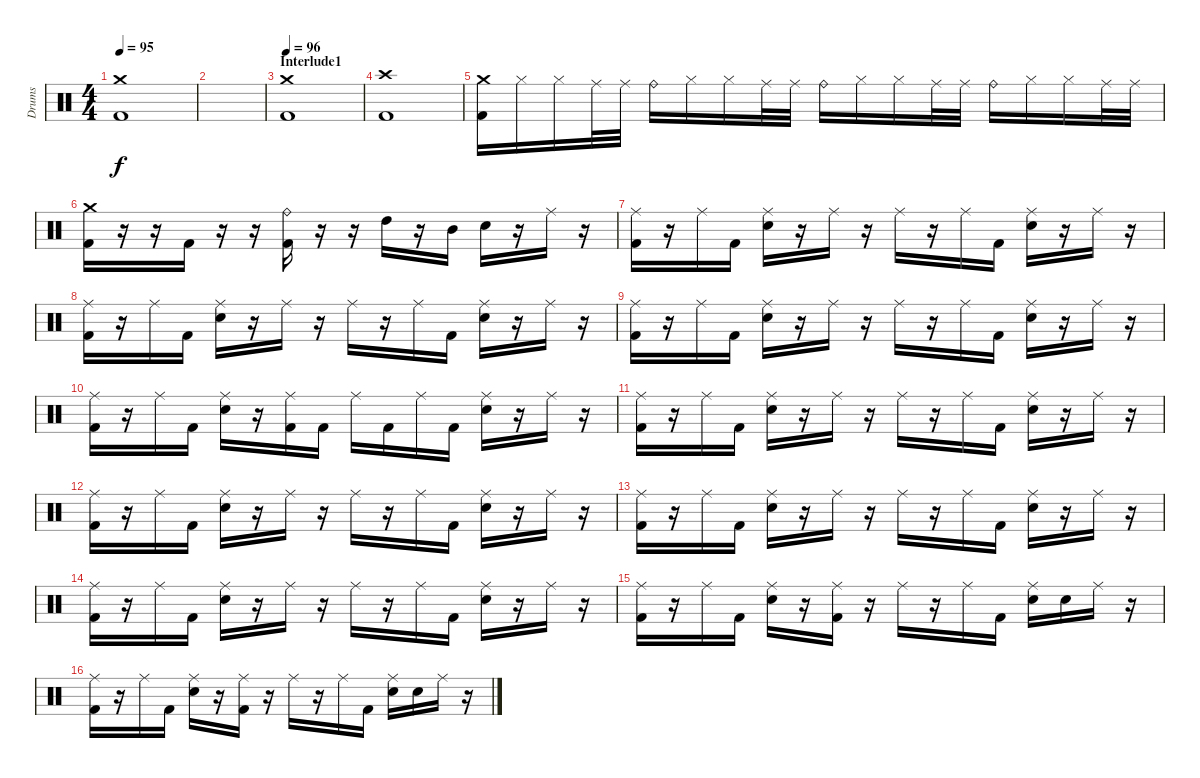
\track ("Drums" "Drums") {instrument percussion}
\staff {score}
\articulation defaults
\ts (4 4)
\tempo 95
\clef neutral
\ks c
("Crash medium (hit)" "Kick (hit) 2").1{dy f} |
|
\section ("" "Interlude1")
\tempo 96
("Crash medium (hit)" "Kick (hit) 2").1 |
("Crash high (hit)" "Kick (hit) 2").1 |
("Crash medium (hit)" "Kick (hit) 2").16 "Hi-Hat (closed)".16 "Hi-Hat (closed)".16 "Ride (middle)".32 "Ride (middle)".32 "Ride (bell)".16 "Hi-Hat (closed)".16 "Hi-Hat (closed)".16 "Ride (middle)".32 "Ride (middle)".32 "Ride (bell)".16 "Hi-Hat (closed)".16 "Hi-Hat (closed)".16 "Ride (middle)".32 "Ride (middle)".32 "Ride (bell)".16 "Hi-Hat (closed)".16 "Hi-Hat (closed)".16 "Ride (middle)".32 "Ride (middle)".32 |
("Crash medium (hit)" "Kick (hit) 2").16 r.16 r.16 "Kick (hit) 2".16 r.16 r.16 ("Ride (bell)" "Kick (hit) 2").16 r.16 r.16 "High Tom (hit)".16 r.16 "Mid Tom (hit)".16 "Electric Snare (hit)".16 r.16 "Ride (middle)".16 r.16 |
("Ride (middle)" "Kick (hit) 2").16 r.16 "Ride (middle)".16 "Kick (hit) 2".16 ("Ride (middle)" "Electric Snare (hit)").16 r.16 "Ride (middle)".16 r.16 "Ride (middle)".16 r.16 "Ride (middle)".16 "Kick (hit) 2".16 ("Ride (middle)" "Electric Snare (hit)").16 r.16 "Ride (middle)".16 r.16 |
("Ride (middle)" "Kick (hit) 2").16 r.16 "Ride (middle)".16 "Kick (hit) 2".16 ("Ride (middle)" "Electric Snare (hit)").16 r.16 "Ride (middle)".16 r.16 "Ride (middle)".16 r.16 "Ride (middle)".16 "Kick (hit) 2".16 ("Ride (middle)" "Electric Snare (hit)").16 r.16 "Ride (middle)".16 r.16 |
("Ride (middle)" "Kick (hit) 2").16 r.16 "Ride (middle)".16 "Kick (hit) 2".16 ("Ride (middle)" "Electric Snare (hit)").16 r.16 "Ride (middle)".16 r.16 "Ride (middle)".16 r.16 "Ride (middle)".16 "Kick (hit) 2".16 ("Ride (middle)" "Electric Snare (hit)").16 r.16 "Ride (middle)".16 r.16 |
("Ride (middle)" "Kick (hit) 2").16 r.16 "Ride (middle)".16 "Kick (hit) 2".16 ("Ride (middle)" "Electric Snare (hit)").16 r.16 ("Ride (middle)" "Kick (hit) 2").16 "Kick (hit) 2".16 "Ride (middle)".16 "Kick (hit) 2".16 "Ride (middle)".16 "Kick (hit) 2".16 ("Ride (middle)" "Electric Snare (hit)").16 r.16 "Ride (middle)".16 r.16 |
("Ride (middle)" "Kick (hit) 2").16 r.16 "Ride (middle)".16 "Kick (hit) 2".16 ("Ride (middle)" "Electric Snare (hit)").16 r.16 "Ride (middle)".16 r.16 "Ride (middle)".16 r.16 "Ride (middle)".16 "Kick (hit) 2".16 ("Ride (middle)" "Electric Snare (hit)").16 r.16 "Ride (middle)".16 r.16 |
("Ride (middle)" "Kick (hit) 2").16 r.16 "Ride (middle)".16 "Kick (hit) 2".16 ("Ride (middle)" "Electric Snare (hit)").16 r.16 "Ride (middle)".16 r.16 "Ride (middle)".16 r.16 "Ride (middle)".16 "Kick (hit) 2".16 ("Ride (middle)" "Electric Snare (hit)").16 r.16 "Ride (middle)".16 r.16 |
("Ride (middle)" "Kick (hit) 2").16 r.16 "Ride (middle)".16 "Kick (hit) 2".16 ("Ride (middle)" "Electric Snare (hit)").16 r.16 "Ride (middle)".16 r.16 "Ride (middle)".16 r.16 "Ride (middle)".16 "Kick (hit) 2".16 ("Ride (middle)" "Electric Snare (hit)").16 r.16 "Ride (middle)".16 r.16 |
("Ride (middle)" "Kick (hit) 2").16 r.16 "Ride (middle)".16 "Kick (hit) 2".16 ("Ride (middle)" "Electric Snare (hit)").16 r.16 "Ride (middle)".16 r.16 "Ride (middle)".16 r.16 "Ride (middle)".16 "Kick (hit) 2".16 ("Ride (middle)" "Electric Snare (hit)").16 r.16 "Ride (middle)".16 r.16 |
("Ride (middle)" "Kick (hit) 2").16 r.16 "Ride (middle)".16 "Kick (hit) 2".16 ("Ride (middle)" "Electric Snare (hit)").16 r.16 ("Ride (middle)" "Kick (hit) 2").16 r.16 "Ride (middle)".16 r.16 "Ride (middle)".16 "Kick (hit) 2".16 ("Ride (middle)" "Electric Snare (hit)").16 "Electric Snare (hit)".16 "Ride (middle)".16 r.16 |
("Ride (middle)" "Kick (hit) 2").16 r.16 "Ride (middle)".16 "Kick (hit) 2".16 ("Ride (middle)" "Electric Snare (hit)").16 r.16 ("Ride (middle)" "Kick (hit) 2").16 r.16 "Ride (middle)".16 r.16 "Ride (middle)".16 "Kick (hit) 2".16 ("Ride (middle)" "Electric Snare (hit)").16 "Electric Snare (hit)".16 "Ride (middle)".16 r.16
